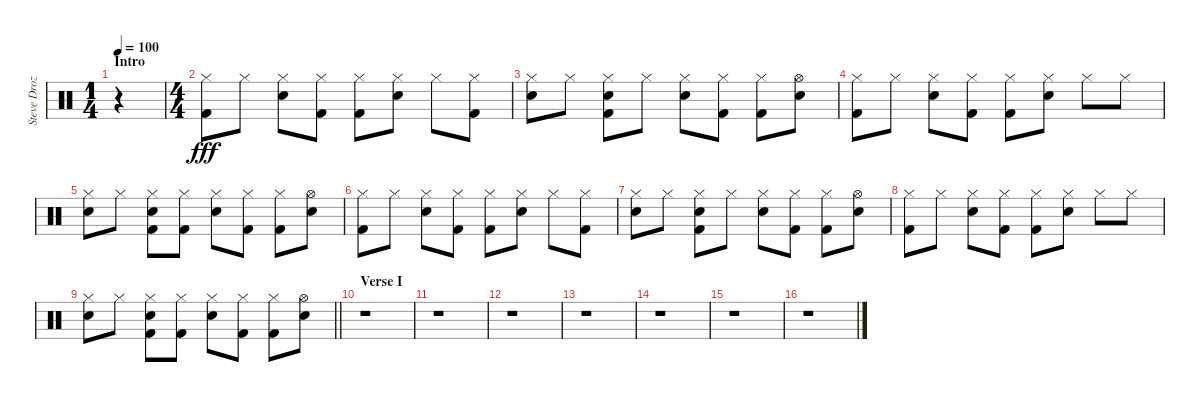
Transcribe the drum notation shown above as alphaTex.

\track ("Steve Drozd" "Steve Droz") {instrument percussion}
\staff {score}
\articulation defaults
\ts (1 4)
\section ("" "Intro")
\tempo 100
\clef neutral
\ks c
r.4{dy fff} |
\ts (4 4)
("Kick (hit) 2" "Hi-Hat (closed)").8 "Hi-Hat (closed)".8 ("Electric Snare (hit)" "Hi-Hat (closed)").8 ("Kick (hit) 2" "Hi-Hat (closed)").8 ("Kick (hit) 2" "Hi-Hat (closed)").8 ("Electric Snare (hit)" "Hi-Hat (closed)").8 "Hi-Hat (closed)".8 ("Kick (hit) 2" "Hi-Hat (closed)").8 |
("Electric Snare (hit)" "Hi-Hat (closed)").8 "Hi-Hat (closed)".8 ("Kick (hit) 2" "Electric Snare (hit)" "Hi-Hat (closed)").8 "Hi-Hat (closed)".8 ("Electric Snare (hit)" "Hi-Hat (closed)").8 ("Kick (hit) 2" "Hi-Hat (closed)").8 ("Kick (hit) 2" "Hi-Hat (closed)").8 ("Electric Snare (hit)" "Hi-Hat (open)").8 |
("Kick (hit) 2" "Hi-Hat (closed)").8 "Hi-Hat (closed)".8 ("Electric Snare (hit)" "Hi-Hat (closed)").8 ("Kick (hit) 2" "Hi-Hat (closed)").8 ("Kick (hit) 2" "Hi-Hat (closed)").8 ("Electric Snare (hit)" "Hi-Hat (closed)").8 "Hi-Hat (closed)".8 "Hi-Hat (closed)".8 |
("Electric Snare (hit)" "Hi-Hat (closed)").8 "Hi-Hat (closed)".8 ("Kick (hit) 2" "Electric Snare (hit)" "Hi-Hat (closed)").8 ("Kick (hit) 2" "Hi-Hat (closed)").8 ("Electric Snare (hit)" "Hi-Hat (closed)").8 ("Kick (hit) 2" "Hi-Hat (closed)").8 ("Kick (hit) 2" "Hi-Hat (closed)").8 ("Electric Snare (hit)" "Hi-Hat (open)").8 |
("Kick (hit) 2" "Hi-Hat (closed)").8 "Hi-Hat (closed)".8 ("Electric Snare (hit)" "Hi-Hat (closed)").8 ("Kick (hit) 2" "Hi-Hat (closed)").8 ("Kick (hit) 2" "Hi-Hat (closed)").8 ("Electric Snare (hit)" "Hi-Hat (closed)").8 "Hi-Hat (closed)".8 ("Kick (hit) 2" "Hi-Hat (closed)").8 |
("Electric Snare (hit)" "Hi-Hat (closed)").8 "Hi-Hat (closed)".8 ("Kick (hit) 2" "Electric Snare (hit)" "Hi-Hat (closed)").8 "Hi-Hat (closed)".8 ("Electric Snare (hit)" "Hi-Hat (closed)").8 ("Kick (hit) 2" "Hi-Hat (closed)").8 ("Kick (hit) 2" "Hi-Hat (closed)").8 ("Electric Snare (hit)" "Hi-Hat (open)").8 |
("Kick (hit) 2" "Hi-Hat (closed)").8 "Hi-Hat (closed)".8 ("Electric Snare (hit)" "Hi-Hat (closed)").8 ("Kick (hit) 2" "Hi-Hat (closed)").8 ("Kick (hit) 2" "Hi-Hat (closed)").8 ("Electric Snare (hit)" "Hi-Hat (closed)").8 "Hi-Hat (closed)".8 "Hi-Hat (closed)".8 |
\barLineRight lightlight
("Electric Snare (hit)" "Hi-Hat (closed)").8 "Hi-Hat (closed)".8 ("Kick (hit) 2" "Electric Snare (hit)" "Hi-Hat (closed)").8 ("Kick (hit) 2" "Hi-Hat (closed)").8 ("Electric Snare (hit)" "Hi-Hat (closed)").8 ("Kick (hit) 2" "Hi-Hat (closed)").8 ("Kick (hit) 2" "Hi-Hat (closed)").8 ("Electric Snare (hit)" "Hi-Hat (open)").8 |
\section ("" "Verse I")
r.1 |
r.1 |
r.1 |
r.1 |
r.1 |
r.1 |
r.1
